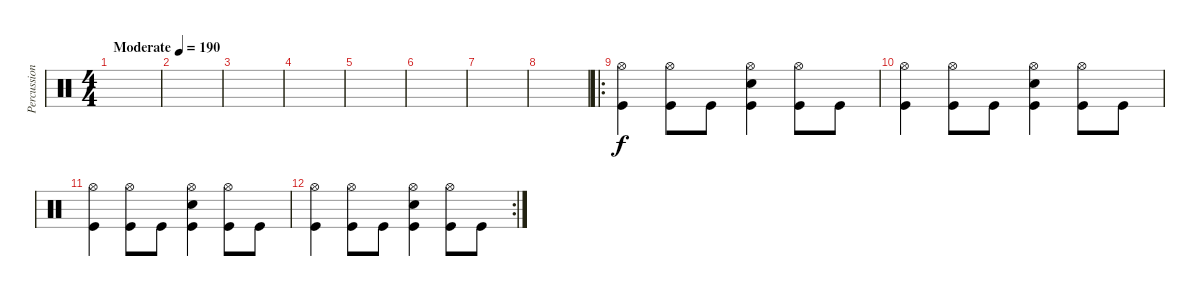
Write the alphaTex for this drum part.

\track ("Percussion" "Percussion") {instrument percussion}
\staff {score}
\articulation defaults
\ts (4 4)
\tempo (190 "Moderate")
\clef neutral
\ks c
|
|
|
|
|
|
|
|
\ro
("Hi-Hat (open)" "Kick (hit)").4 ("Hi-Hat (open)" "Kick (hit)").8 "Kick (hit)".8 ("Hi-Hat (open)" "Snare (hit) 2" "Kick (hit)").4 ("Hi-Hat (open)" "Kick (hit)").8 "Kick (hit)".8 |
("Hi-Hat (open)" "Kick (hit)").4 ("Hi-Hat (open)" "Kick (hit)").8 "Kick (hit)".8 ("Hi-Hat (open)" "Snare (hit) 2" "Kick (hit)").4 ("Hi-Hat (open)" "Kick (hit)").8 "Kick (hit)".8 |
("Hi-Hat (open)" "Kick (hit)").4 ("Hi-Hat (open)" "Kick (hit)").8 "Kick (hit)".8 ("Hi-Hat (open)" "Snare (hit) 2" "Kick (hit)").4 ("Hi-Hat (open)" "Kick (hit)").8 "Kick (hit)".8 |
\rc 2
("Hi-Hat (open)" "Kick (hit)").4 ("Hi-Hat (open)" "Kick (hit)").8 "Kick (hit)".8 ("Hi-Hat (open)" "Snare (hit) 2" "Kick (hit)").4 ("Hi-Hat (open)" "Kick (hit)").8 "Kick (hit)".8
